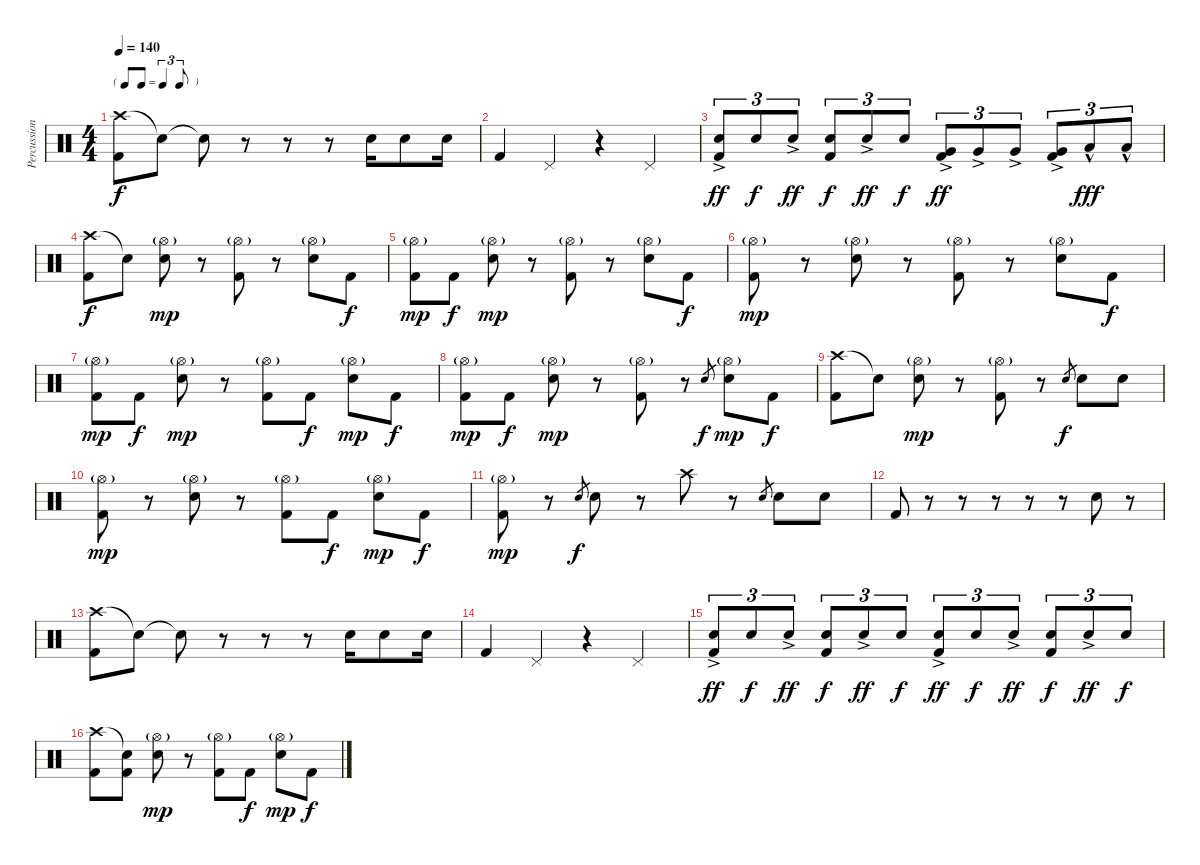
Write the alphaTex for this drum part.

\track ("Percussion" "Percussion") {instrument percussion}
\staff {score}
\articulation defaults
\ts (4 4)
\tf triplet8th
\tempo 140
\clef neutral
\ks c
("Crash high (hit)" "Kick (hit) 2").8{dy f} "Snare (hit)"{t}.8 "Snare (hit)"{t}.8 r.8 r.8 r.8 "Snare (hit) 2".16 "Snare (hit) 2".8 "Snare (hit) 2".16 |
"Kick (hit) 2".4 "Pedal Hi-Hat (hit)".4 r.4 "Pedal Hi-Hat (hit)".4 |
("Snare (hit) 2"{ac} "Kick (hit) 2").8{tu (3 2) dy ff} "Snare (hit) 2".8{tu (3 2) dy f} "Snare (hit) 2"{ac}.8{tu (3 2) dy ff} ("Snare (hit) 2" "Kick (hit) 2").8{tu (3 2) dy f} "Snare (hit) 2"{ac}.8{tu (3 2) dy ff} "Snare (hit) 2".8{tu (3 2) dy f} ("Very Low Tom (hit)"{ac} "Kick (hit) 2").8{tu (3 2) dy ff} "Very Low Tom (hit)"{ac}.8{tu (3 2)} "Very Low Tom (hit)"{ac}.8{tu (3 2)} ("Very Low Tom (hit)"{ac} "Kick (hit) 2").8{tu (3 2)} "Low Floor Tom (hit)"{hac}.8{tu (3 2) dy fff} "Low Floor Tom (hit)"{hac}.8{tu (3 2)} |
("Crash high (hit)" "Kick (hit) 2").8{dy f} "Snare (hit)"{t}.8 ("Hi-Hat (open)"{g} "Snare (hit) 2").8{dy mp} r.8 ("Hi-Hat (open)"{g} "Kick (hit) 2").8 r.8 ("Hi-Hat (open)"{g} "Snare (hit) 2").8 "Kick (hit) 2".8{dy f} |
("Hi-Hat (open)"{g} "Kick (hit) 2").8{dy mp} "Kick (hit) 2".8{dy f} ("Hi-Hat (open)"{g} "Snare (hit) 2").8{dy mp} r.8 ("Hi-Hat (open)"{g} "Kick (hit) 2").8 r.8 ("Hi-Hat (open)"{g} "Snare (hit) 2").8 "Kick (hit) 2".8{dy f} |
("Hi-Hat (open)"{g} "Kick (hit) 2").8{dy mp} r.8 ("Hi-Hat (open)"{g} "Snare (hit) 2").8 r.8 ("Hi-Hat (open)"{g} "Kick (hit) 2").8 r.8 ("Hi-Hat (open)"{g} "Snare (hit) 2").8 "Kick (hit) 2".8{dy f} |
("Hi-Hat (open)"{g} "Kick (hit) 2").8{dy mp} "Kick (hit) 2".8{dy f} ("Hi-Hat (open)"{g} "Snare (hit) 2").8{dy mp} r.8 ("Hi-Hat (open)"{g} "Kick (hit) 2").8 "Kick (hit) 2".8{dy f} ("Hi-Hat (open)"{g} "Snare (hit) 2").8{dy mp} "Kick (hit) 2".8{dy f} |
("Hi-Hat (open)"{g} "Kick (hit) 2").8{dy mp} "Kick (hit) 2".8{dy f} ("Hi-Hat (open)"{g} "Snare (hit) 2").8{dy mp} r.8 ("Hi-Hat (open)"{g} "Kick (hit) 2").8 r.8 "Snare (hit) 2".8{gr dy f} ("Hi-Hat (open)"{g} "Snare (hit) 2").8{dy mp} "Kick (hit) 2".8{dy f} |
("Crash high (hit)" "Kick (hit) 2").8 "Snare (hit)"{t}.8 ("Hi-Hat (open)"{g} "Snare (hit) 2").8{dy mp} r.8 ("Hi-Hat (open)"{g} "Kick (hit) 2").8 r.8 "Snare (hit) 2".8{gr dy f} "Snare (hit) 2".8 "Snare (hit) 2".8 |
("Hi-Hat (open)"{g} "Kick (hit) 2").8{dy mp} r.8 ("Hi-Hat (open)"{g} "Snare (hit) 2").8 r.8 ("Hi-Hat (open)"{g} "Kick (hit) 2").8 "Kick (hit) 2".8{dy f} ("Hi-Hat (open)"{g} "Snare (hit) 2").8{dy mp} "Kick (hit) 2".8{dy f} |
("Hi-Hat (open)"{g} "Kick (hit) 2").8{dy mp} r.8 "Snare (hit) 2".8{gr dy f} "Snare (hit) 2".8 r.8 "Crash high (hit)".8 r.8 "Snare (hit) 2".8{gr} "Snare (hit) 2".8 "Snare (hit) 2".8 |
"Kick (hit) 2".8 r.8 r.8 r.8 r.8 r.8 "Snare (hit) 2".8 r.8 |
("Crash high (hit)" "Kick (hit) 2").8 "Snare (hit)"{t}.8 "Snare (hit)"{t}.8 r.8 r.8 r.8 "Snare (hit) 2".16 "Snare (hit) 2".8 "Snare (hit) 2".16 |
"Kick (hit) 2".4 "Pedal Hi-Hat (hit)".4 r.4 "Pedal Hi-Hat (hit)".4 |
("Snare (hit) 2"{ac} "Kick (hit) 2").8{tu (3 2) dy ff} "Snare (hit) 2".8{tu (3 2) dy f} "Snare (hit) 2"{ac}.8{tu (3 2) dy ff} ("Snare (hit) 2" "Kick (hit) 2").8{tu (3 2) dy f} "Snare (hit) 2"{ac}.8{tu (3 2) dy ff} "Snare (hit) 2".8{tu (3 2) dy f} ("Snare (hit) 2"{ac} "Kick (hit) 2").8{tu (3 2) dy ff} "Snare (hit) 2".8{tu (3 2) dy f} "Snare (hit) 2"{ac}.8{tu (3 2) dy ff} ("Snare (hit) 2" "Kick (hit) 2").8{tu (3 2) dy f} "Snare (hit) 2"{ac}.8{tu (3 2) dy ff} "Snare (hit) 2".8{tu (3 2) dy f} |
("Crash high (hit)" "Kick (hit) 2").8 ("Snare (hit)"{t} "Kick (hit) 2").8 ("Hi-Hat (open)"{g} "Snare (hit) 2").8{dy mp} r.8 ("Hi-Hat (open)"{g} "Kick (hit) 2").8 "Kick (hit) 2".8{dy f} ("Hi-Hat (open)"{g} "Snare (hit) 2").8{dy mp} "Kick (hit) 2".8{dy f}
